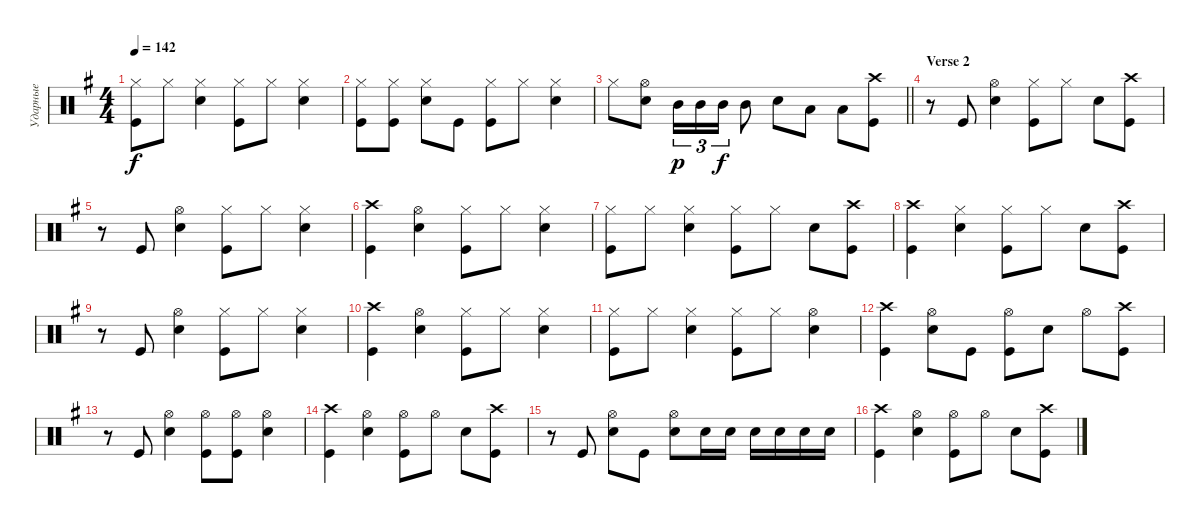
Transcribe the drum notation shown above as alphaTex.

\track ("Ударные" "Ударные") {instrument percussion}
\staff {score}
\articulation defaults
\ts (4 4)
\tempo 142
\clef neutral
\ks eminor
("Hi-Hat (closed)" "Kick (hit)").8{dy f} "Hi-Hat (closed)".8 ("Snare (hit) 2" "Hi-Hat (closed)").4 ("Kick (hit)" "Hi-Hat (closed)").8 "Hi-Hat (closed)".8 ("Hi-Hat (closed)" "Snare (hit) 2").4 |
("Hi-Hat (closed)" "Kick (hit)").8 ("Hi-Hat (closed)" "Kick (hit)").8 ("Snare (hit) 2" "Hi-Hat (closed)").8 "Kick (hit)".8 ("Kick (hit)" "Hi-Hat (closed)").8 "Hi-Hat (closed)".8 ("Hi-Hat (closed)" "Snare (hit) 2").4 |
\barLineRight lightlight "Hi-Hat (closed)".8
("Snare (hit) 2" "Hi-Hat (open)").8 "Mid Tom (hit)".16{tu (3 2) dy p} "Mid Tom (hit)".16{tu (3 2)} "Mid Tom (hit)".16{tu (3 2) dy f} "Mid Tom (hit)".8 "Snare (hit) 2".8 "Low Tom (hit)".8 "Low Tom (hit)".8 ("Kick (hit)" "Crash high (hit)").8 |
\section ("" "Verse 2")
r.8 "Kick (hit)".8 ("Snare (hit) 2" "Hi-Hat (open)").4 ("Kick (hit)" "Hi-Hat (closed)").8 "Hi-Hat (closed)".8 "Snare (hit) 2".8 ("Kick (hit)" "Crash high (hit)").8 |
r.8 "Kick (hit)".8 ("Snare (hit) 2" "Hi-Hat (open)").4 ("Kick (hit)" "Hi-Hat (closed)").8 "Hi-Hat (closed)".8 ("Snare (hit) 2" "Hi-Hat (closed)").4 |
("Kick (hit)" "Crash high (hit)").4 ("Snare (hit) 2" "Hi-Hat (open)").4 ("Kick (hit)" "Hi-Hat (closed)").8 "Hi-Hat (closed)".8 ("Snare (hit) 2" "Hi-Hat (closed)").4 |
("Hi-Hat (closed)" "Kick (hit)").8 "Hi-Hat (closed)".8 ("Snare (hit) 2" "Hi-Hat (closed)").4 ("Kick (hit)" "Hi-Hat (closed)").8 "Hi-Hat (closed)".8 "Snare (hit) 2".8 ("Kick (hit)" "Crash high (hit)").8 |
("Kick (hit)" "Crash high (hit)").4 ("Snare (hit) 2" "Hi-Hat (closed)").4 ("Kick (hit)" "Hi-Hat (closed)").8 "Hi-Hat (closed)".8 "Snare (hit) 2".8 ("Kick (hit)" "Crash high (hit)").8 |
r.8 "Kick (hit)".8 ("Snare (hit) 2" "Hi-Hat (open)").4 ("Kick (hit)" "Hi-Hat (closed)").8 "Hi-Hat (closed)".8 ("Snare (hit) 2" "Hi-Hat (closed)").4 |
("Kick (hit)" "Crash high (hit)").4 ("Snare (hit) 2" "Hi-Hat (open)").4 ("Kick (hit)" "Hi-Hat (closed)").8 "Hi-Hat (closed)".8 ("Snare (hit) 2" "Hi-Hat (closed)").4 |
("Hi-Hat (closed)" "Kick (hit)").8 "Hi-Hat (closed)".8 ("Snare (hit) 2" "Hi-Hat (closed)").4 ("Kick (hit)" "Hi-Hat (closed)").8 "Hi-Hat (closed)".8 ("Hi-Hat (open)" "Snare (hit) 2").4 |
("Kick (hit)" "Crash high (hit)").4 ("Snare (hit) 2" "Hi-Hat (open)").8 "Kick (hit)".8 ("Kick (hit)" "Hi-Hat (open)").8 "Snare (hit) 2".8 "Hi-Hat (open)".8 ("Kick (hit)" "Crash high (hit)").8 |
r.8 "Kick (hit)".8 ("Snare (hit) 2" "Hi-Hat (open)").4 ("Kick (hit)" "Hi-Hat (open)").8 ("Kick (hit)" "Hi-Hat (open)").8 ("Snare (hit) 2" "Hi-Hat (open)").4 |
("Kick (hit)" "Crash high (hit)").4 ("Snare (hit) 2" "Hi-Hat (open)").4 ("Kick (hit)" "Hi-Hat (open)").8 "Hi-Hat (open)".8 "Snare (hit) 2".8 ("Kick (hit)" "Crash high (hit)").8 |
r.8 "Kick (hit)".8 ("Snare (hit) 2" "Hi-Hat (open)").8 "Kick (hit)".8 ("Snare (hit) 2" "Hi-Hat (open)").8 "Snare (hit) 2".16 "Snare (hit) 2".16 "Snare (hit) 2".16 "Snare (hit) 2".16 "Snare (hit) 2".16 "Snare (hit) 2".16 |
("Kick (hit)" "Crash high (hit)").4 ("Snare (hit) 2" "Hi-Hat (open)").4 ("Kick (hit)" "Hi-Hat (open)").8 "Hi-Hat (open)".8 "Snare (hit) 2".8 ("Kick (hit)" "Crash high (hit)").8
